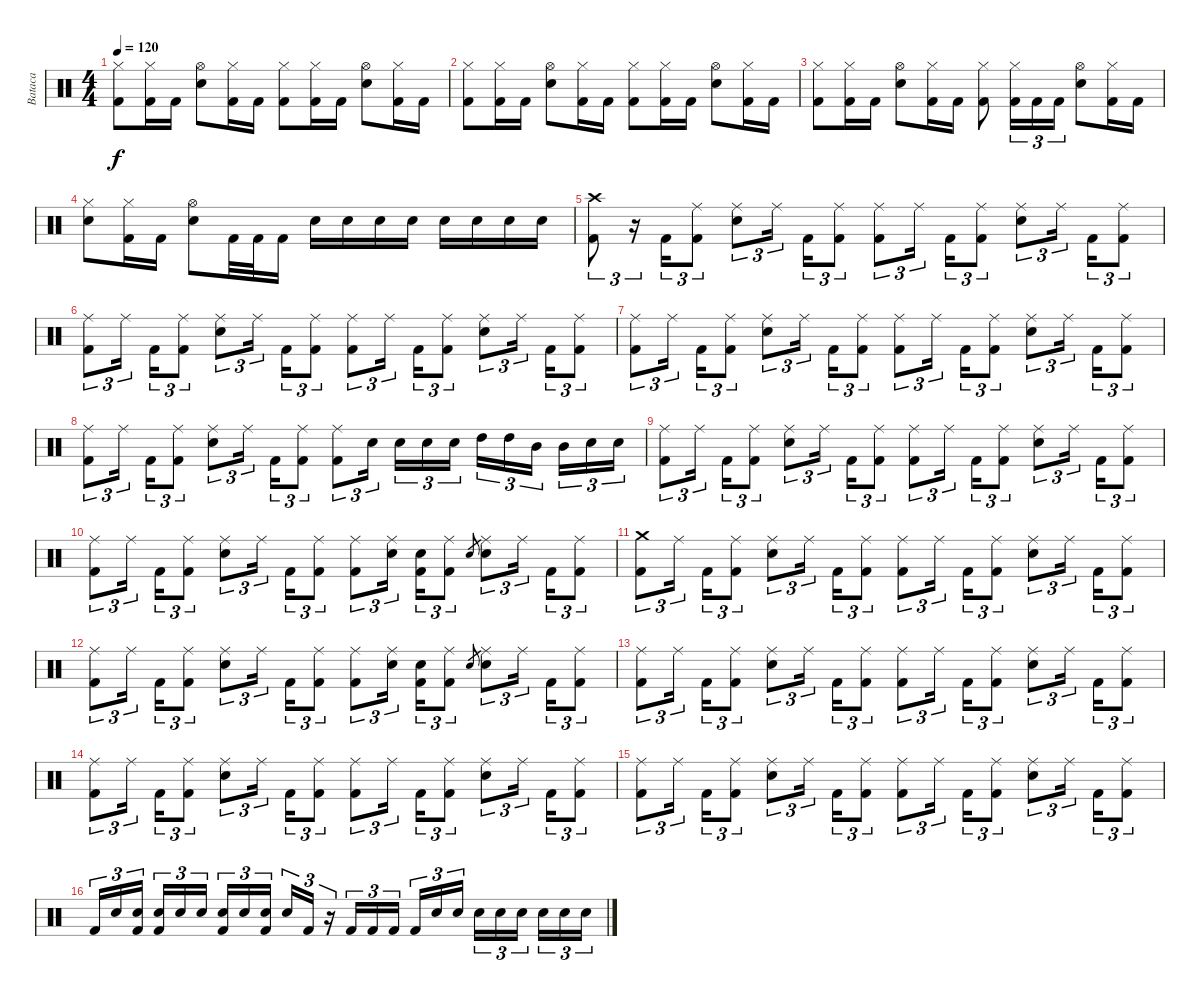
\track ("Bataca" "Bataca") {instrument percussion}
\staff {score}
\articulation defaults
\ts (4 4)
\tempo 120
\clef neutral
\ks c
("Hi-Hat (closed)" "Kick (hit) 2").8{dy f} ("Hi-Hat (closed)" "Kick (hit) 2").16 "Kick (hit) 2".16 ("Hi-Hat (open)" "Electric Snare (hit)").8 ("Hi-Hat (closed)" "Kick (hit) 2").16 "Kick (hit) 2".16 ("Hi-Hat (closed)" "Kick (hit) 2").8 ("Hi-Hat (closed)" "Kick (hit) 2").16 "Kick (hit) 2".16 ("Hi-Hat (open)" "Electric Snare (hit)").8 ("Hi-Hat (closed)" "Kick (hit) 2").16 "Kick (hit) 2".16 |
("Hi-Hat (closed)" "Kick (hit) 2").8 ("Hi-Hat (closed)" "Kick (hit) 2").16 "Kick (hit) 2".16 ("Hi-Hat (open)" "Electric Snare (hit)").8 ("Hi-Hat (closed)" "Kick (hit) 2").16 "Kick (hit) 2".16 ("Hi-Hat (closed)" "Kick (hit) 2").8 ("Hi-Hat (closed)" "Kick (hit) 2").16 "Kick (hit) 2".16 ("Hi-Hat (open)" "Electric Snare (hit)").8 ("Hi-Hat (closed)" "Kick (hit) 2").16 "Kick (hit) 2".16 |
("Hi-Hat (closed)" "Kick (hit) 2").8 ("Hi-Hat (closed)" "Kick (hit) 2").16 "Kick (hit) 2".16 ("Hi-Hat (open)" "Electric Snare (hit)").8 ("Hi-Hat (closed)" "Kick (hit) 2").16 "Kick (hit) 2".16 ("Hi-Hat (closed)" "Kick (hit) 2").8 ("Hi-Hat (closed)" "Kick (hit) 2").16{tu (3 2)} "Kick (hit) 2".16{tu (3 2)} "Kick (hit) 2".16{tu (3 2)} ("Hi-Hat (open)" "Electric Snare (hit)").8 ("Hi-Hat (closed)" "Kick (hit) 2").16 "Kick (hit) 2".16 |
("Hi-Hat (closed)" "Electric Snare (hit)").8 ("Hi-Hat (closed)" "Kick (hit) 2").16 "Kick (hit) 2".16 ("Hi-Hat (open)" "Electric Snare (hit)").8 "Kick (hit) 2".32 "Kick (hit) 2".32 "Kick (hit) 2".16 "Electric Snare (hit)".16 "Electric Snare (hit)".16 "Electric Snare (hit)".16 "Electric Snare (hit)".16 "Electric Snare (hit)".16 "Electric Snare (hit)".16 "Electric Snare (hit)".16 "Electric Snare (hit)".16 |
("Crash high (hit)" "Kick (hit) 2").8{tu (3 2)} r.16{tu (3 2)} "Kick (hit) 2".16{tu (3 2)} ("Ride (middle)" "Kick (hit) 2").8{tu (3 2)} ("Ride (middle)" "Electric Snare (hit)").8{tu (3 2)} "Ride (middle)".16{tu (3 2)} "Kick (hit) 2".16{tu (3 2)} ("Ride (middle)" "Kick (hit) 2").8{tu (3 2)} ("Ride (middle)" "Kick (hit) 2").8{tu (3 2)} "Ride (middle)".16{tu (3 2)} "Kick (hit) 2".16{tu (3 2)} ("Ride (middle)" "Kick (hit) 2").8{tu (3 2)} ("Ride (middle)" "Electric Snare (hit)").8{tu (3 2)} "Ride (middle)".16{tu (3 2)} "Kick (hit) 2".16{tu (3 2)} ("Ride (middle)" "Kick (hit) 2").8{tu (3 2)} |
("Ride (middle)" "Kick (hit) 2").8{tu (3 2)} "Ride (middle)".16{tu (3 2)} "Kick (hit) 2".16{tu (3 2)} ("Ride (middle)" "Kick (hit) 2").8{tu (3 2)} ("Ride (middle)" "Electric Snare (hit)").8{tu (3 2)} "Ride (middle)".16{tu (3 2)} "Kick (hit) 2".16{tu (3 2)} ("Ride (middle)" "Kick (hit) 2").8{tu (3 2)} ("Ride (middle)" "Kick (hit) 2").8{tu (3 2)} "Ride (middle)".16{tu (3 2)} "Kick (hit) 2".16{tu (3 2)} ("Ride (middle)" "Kick (hit) 2").8{tu (3 2)} ("Ride (middle)" "Electric Snare (hit)").8{tu (3 2)} "Ride (middle)".16{tu (3 2)} "Kick (hit) 2".16{tu (3 2)} ("Ride (middle)" "Kick (hit) 2").8{tu (3 2)} |
("Ride (middle)" "Kick (hit) 2").8{tu (3 2)} "Ride (middle)".16{tu (3 2)} "Kick (hit) 2".16{tu (3 2)} ("Ride (middle)" "Kick (hit) 2").8{tu (3 2)} ("Ride (middle)" "Electric Snare (hit)").8{tu (3 2)} "Ride (middle)".16{tu (3 2)} "Kick (hit) 2".16{tu (3 2)} ("Ride (middle)" "Kick (hit) 2").8{tu (3 2)} ("Ride (middle)" "Kick (hit) 2").8{tu (3 2)} "Ride (middle)".16{tu (3 2)} "Kick (hit) 2".16{tu (3 2)} ("Ride (middle)" "Kick (hit) 2").8{tu (3 2)} ("Ride (middle)" "Electric Snare (hit)").8{tu (3 2)} "Ride (middle)".16{tu (3 2)} "Kick (hit) 2".16{tu (3 2)} ("Ride (middle)" "Kick (hit) 2").8{tu (3 2)} |
("Ride (middle)" "Kick (hit) 2").8{tu (3 2)} "Ride (middle)".16{tu (3 2)} "Kick (hit) 2".16{tu (3 2)} ("Ride (middle)" "Kick (hit) 2").8{tu (3 2)} ("Ride (middle)" "Electric Snare (hit)").8{tu (3 2)} "Ride (middle)".16{tu (3 2)} "Kick (hit) 2".16{tu (3 2)} ("Ride (middle)" "Kick (hit) 2").8{tu (3 2)} ("Ride (middle)" "Kick (hit) 2").8{tu (3 2)} "Electric Snare (hit)".16{tu (3 2)} "Electric Snare (hit)".16{tu (3 2)} "Electric Snare (hit)".16{tu (3 2)} "Electric Snare (hit)".16{tu (3 2)} "High Tom (hit)".16{tu (3 2)} "High Tom (hit)".16{tu (3 2)} "Mid Tom (hit)".16{tu (3 2)} "Mid Tom (hit)".16{tu (3 2)} "Electric Snare (hit)".16{tu (3 2)} "Electric Snare (hit)".16{tu (3 2)} |
("Ride (middle)" "Kick (hit) 2").8{tu (3 2)} "Ride (middle)".16{tu (3 2)} "Kick (hit) 2".16{tu (3 2)} ("Ride (middle)" "Kick (hit) 2").8{tu (3 2)} ("Ride (middle)" "Electric Snare (hit)").8{tu (3 2)} "Ride (middle)".16{tu (3 2)} "Kick (hit) 2".16{tu (3 2)} ("Ride (middle)" "Kick (hit) 2").8{tu (3 2)} ("Ride (middle)" "Kick (hit) 2").8{tu (3 2)} "Ride (middle)".16{tu (3 2)} "Kick (hit) 2".16{tu (3 2)} ("Ride (middle)" "Kick (hit) 2").8{tu (3 2)} ("Ride (middle)" "Electric Snare (hit)").8{tu (3 2)} "Ride (middle)".16{tu (3 2)} "Kick (hit) 2".16{tu (3 2)} ("Ride (middle)" "Kick (hit) 2").8{tu (3 2)} |
("Ride (middle)" "Kick (hit) 2").8{tu (3 2)} "Ride (middle)".16{tu (3 2)} "Kick (hit) 2".16{tu (3 2)} ("Ride (middle)" "Kick (hit) 2").8{tu (3 2)} ("Ride (middle)" "Electric Snare (hit)").8{tu (3 2)} "Ride (middle)".16{tu (3 2)} "Kick (hit) 2".16{tu (3 2)} ("Ride (middle)" "Kick (hit) 2").8{tu (3 2)} ("Ride (middle)" "Kick (hit) 2").8{tu (3 2)} ("Ride (middle)" "Electric Snare (hit)").16{tu (3 2)} ("Electric Snare (hit)" "Kick (hit) 2").16{tu (3 2)} ("Ride (middle)" "Kick (hit) 2").8{tu (3 2)} "Electric Snare (hit)".8{gr} ("Ride (middle)" "Electric Snare (hit)").8{tu (3 2)} "Ride (middle)".16{tu (3 2)} "Kick (hit) 2".16{tu (3 2)} ("Ride (middle)" "Kick (hit) 2").8{tu (3 2)} |
("Crash medium (hit)" "Kick (hit) 2").8{tu (3 2)} "Ride (middle)".16{tu (3 2)} "Kick (hit) 2".16{tu (3 2)} ("Ride (middle)" "Kick (hit) 2").8{tu (3 2)} ("Ride (middle)" "Electric Snare (hit)").8{tu (3 2)} "Ride (middle)".16{tu (3 2)} "Kick (hit) 2".16{tu (3 2)} ("Ride (middle)" "Kick (hit) 2").8{tu (3 2)} ("Ride (middle)" "Kick (hit) 2").8{tu (3 2)} "Ride (middle)".16{tu (3 2)} "Kick (hit) 2".16{tu (3 2)} ("Ride (middle)" "Kick (hit) 2").8{tu (3 2)} ("Ride (middle)" "Electric Snare (hit)").8{tu (3 2)} "Ride (middle)".16{tu (3 2)} "Kick (hit) 2".16{tu (3 2)} ("Ride (middle)" "Kick (hit) 2").8{tu (3 2)} |
("Ride (middle)" "Kick (hit) 2").8{tu (3 2)} "Ride (middle)".16{tu (3 2)} "Kick (hit) 2".16{tu (3 2)} ("Ride (middle)" "Kick (hit) 2").8{tu (3 2)} ("Ride (middle)" "Electric Snare (hit)").8{tu (3 2)} "Ride (middle)".16{tu (3 2)} "Kick (hit) 2".16{tu (3 2)} ("Ride (middle)" "Kick (hit) 2").8{tu (3 2)} ("Ride (middle)" "Kick (hit) 2").8{tu (3 2)} ("Ride (middle)" "Electric Snare (hit)").16{tu (3 2)} ("Electric Snare (hit)" "Kick (hit) 2").16{tu (3 2)} ("Ride (middle)" "Kick (hit) 2").8{tu (3 2)} "Electric Snare (hit)".8{gr} ("Ride (middle)" "Electric Snare (hit)").8{tu (3 2)} "Ride (middle)".16{tu (3 2)} "Kick (hit) 2".16{tu (3 2)} ("Ride (middle)" "Kick (hit) 2").8{tu (3 2)} |
("Ride (middle)" "Kick (hit) 2").8{tu (3 2)} "Ride (middle)".16{tu (3 2)} "Kick (hit) 2".16{tu (3 2)} ("Ride (middle)" "Kick (hit) 2").8{tu (3 2)} ("Ride (middle)" "Electric Snare (hit)").8{tu (3 2)} "Ride (middle)".16{tu (3 2)} "Kick (hit) 2".16{tu (3 2)} ("Ride (middle)" "Kick (hit) 2").8{tu (3 2)} ("Ride (middle)" "Kick (hit) 2").8{tu (3 2)} "Ride (middle)".16{tu (3 2)} "Kick (hit) 2".16{tu (3 2)} ("Ride (middle)" "Kick (hit) 2").8{tu (3 2)} ("Ride (middle)" "Electric Snare (hit)").8{tu (3 2)} "Ride (middle)".16{tu (3 2)} "Kick (hit) 2".16{tu (3 2)} ("Ride (middle)" "Kick (hit) 2").8{tu (3 2)} |
("Ride (middle)" "Kick (hit) 2").8{tu (3 2)} "Ride (middle)".16{tu (3 2)} "Kick (hit) 2".16{tu (3 2)} ("Ride (middle)" "Kick (hit) 2").8{tu (3 2)} ("Ride (middle)" "Electric Snare (hit)").8{tu (3 2)} "Ride (middle)".16{tu (3 2)} "Kick (hit) 2".16{tu (3 2)} ("Ride (middle)" "Kick (hit) 2").8{tu (3 2)} ("Ride (middle)" "Kick (hit) 2").8{tu (3 2)} "Ride (middle)".16{tu (3 2)} "Kick (hit) 2".16{tu (3 2)} ("Ride (middle)" "Kick (hit) 2").8{tu (3 2)} ("Ride (middle)" "Electric Snare (hit)").8{tu (3 2)} "Ride (middle)".16{tu (3 2)} "Kick (hit) 2".16{tu (3 2)} ("Ride (middle)" "Kick (hit) 2").8{tu (3 2)} |
("Ride (middle)" "Kick (hit) 2").8{tu (3 2)} "Ride (middle)".16{tu (3 2)} "Kick (hit) 2".16{tu (3 2)} ("Ride (middle)" "Kick (hit) 2").8{tu (3 2)} ("Ride (middle)" "Electric Snare (hit)").8{tu (3 2)} "Ride (middle)".16{tu (3 2)} "Kick (hit) 2".16{tu (3 2)} ("Ride (middle)" "Kick (hit) 2").8{tu (3 2)} ("Ride (middle)" "Kick (hit) 2").8{tu (3 2)} "Ride (middle)".16{tu (3 2)} "Kick (hit) 2".16{tu (3 2)} ("Ride (middle)" "Kick (hit) 2").8{tu (3 2)} ("Ride (middle)" "Electric Snare (hit)").8{tu (3 2)} "Ride (middle)".16{tu (3 2)} "Kick (hit) 2".16{tu (3 2)} ("Ride (middle)" "Kick (hit) 2").8{tu (3 2)} |
"Kick (hit) 2".16{tu (3 2)} "Electric Snare (hit)".16{tu (3 2)} ("Electric Snare (hit)" "Kick (hit) 2").16{tu (3 2)} ("Electric Snare (hit)" "Kick (hit) 2").16{tu (3 2)} "Electric Snare (hit)".16{tu (3 2)} "Electric Snare (hit)".16{tu (3 2)} ("Electric Snare (hit)" "Kick (hit) 2").16{tu (3 2)} "Electric Snare (hit)".16{tu (3 2)} ("Electric Snare (hit)" "Kick (hit) 2").16{tu (3 2)} "Electric Snare (hit)".16{tu (3 2)} "Kick (hit) 2".16{tu (3 2)} r.16{tu (3 2)} "Kick (hit) 2".16{tu (3 2)} "Kick (hit) 2".16{tu (3 2)} "Kick (hit) 2".16{tu (3 2)} "Kick (hit) 2".16{tu (3 2)} "Electric Snare (hit)".16{tu (3 2)} "Electric Snare (hit)".16{tu (3 2)} "Electric Snare (hit)".16{tu (3 2)} "Electric Snare (hit)".16{tu (3 2)} "Electric Snare (hit)".16{tu (3 2)} "Electric Snare (hit)".16{tu (3 2)} "Electric Snare (hit)".16{tu (3 2)} "Electric Snare (hit)".16{tu (3 2)}
